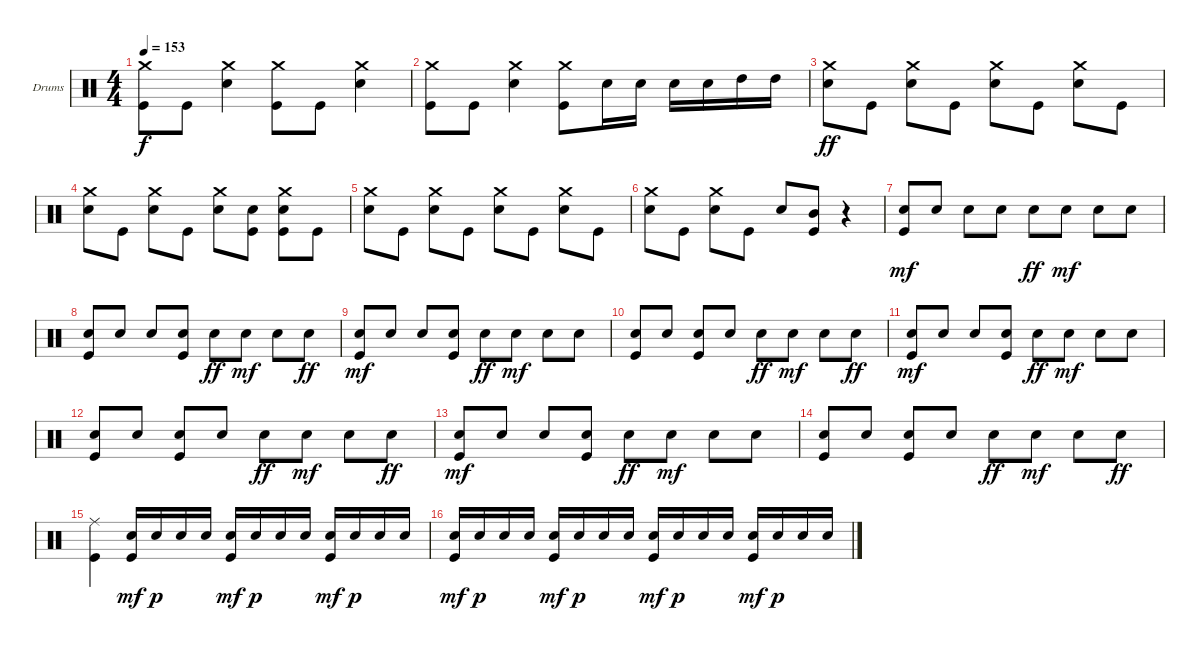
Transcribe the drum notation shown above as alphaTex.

\bracketExtendMode groupsimilarinstruments
\firstSystemTrackNameOrientation horizontal
\otherSystemsTrackNameOrientation horizontal
\track ("Drumkit" "Drums") {instrument percussion}
\staff {score}
\articulation defaults
\ts (4 4)
\tempo 153
\clef neutral
\ks c
("Crash medium (hit)" "Kick (hit)").8{dy f} "Kick (hit)".8 ("Crash medium (hit)" "Snare (hit) 2").4 ("Crash medium (hit)" "Kick (hit)").8 "Kick (hit)".8 ("Crash medium (hit)" "Snare (hit) 2").4 |
("Crash medium (hit)" "Kick (hit)").8 "Kick (hit)".8 ("Crash medium (hit)" "Snare (hit) 2").4 ("Crash medium (hit)" "Kick (hit)").8 "Snare (hit) 2".16 "Snare (hit) 2".16 "Snare (hit) 2".16 "Snare (hit) 2".16 "High Tom (hit)".16 "High Tom (hit)".16 |
("Crash medium (hit)" "Snare (hit) 2").8{dy ff} "Kick (hit)".8 ("Crash medium (hit)" "Snare (hit) 2").8 "Kick (hit)".8 ("Crash medium (hit)" "Snare (hit) 2").8 "Kick (hit)".8 ("Crash medium (hit)" "Snare (hit) 2").8 "Kick (hit)".8 |
("Crash medium (hit)" "Snare (hit) 2").8 "Kick (hit)".8 ("Crash medium (hit)" "Snare (hit) 2").8 "Kick (hit)".8 ("Crash medium (hit)" "Snare (hit) 2").8 ("Kick (hit)" "Snare (hit) 2").8 ("Crash medium (hit)" "Kick (hit)" "Snare (hit) 2").8 "Kick (hit)".8 |
("Crash medium (hit)" "Snare (hit) 2").8 "Kick (hit)".8 ("Crash medium (hit)" "Snare (hit) 2").8 "Kick (hit)".8 ("Crash medium (hit)" "Snare (hit) 2").8 "Kick (hit)".8 ("Crash medium (hit)" "Snare (hit) 2").8 "Kick (hit)".8 |
("Crash medium (hit)" "Snare (hit) 2").8 "Kick (hit)".8 ("Crash medium (hit)" "Snare (hit) 2").8 "Kick (hit)".8 "Snare (hit) 2".8 ("Mid Tom (hit)" "Kick (hit)").8 r.4 |
\section ("" "")
("Snare (hit) 2" "Kick (hit)").8{dy mf} "Snare (hit) 2".8 "Snare (hit) 2".8 "Snare (hit) 2".8 "Snare (hit) 2".8{dy ff} "Snare (hit) 2".8{dy mf} "Snare (hit) 2".8 "Snare (hit) 2".8 |
("Snare (hit) 2" "Kick (hit)").8 "Snare (hit) 2".8 "Snare (hit) 2".8 ("Snare (hit) 2" "Kick (hit)").8 "Snare (hit) 2".8{dy ff} "Snare (hit) 2".8{dy mf} "Snare (hit) 2".8 "Snare (hit) 2".8{dy ff} |
("Snare (hit) 2" "Kick (hit)").8{dy mf} "Snare (hit) 2".8 "Snare (hit) 2".8 ("Snare (hit) 2" "Kick (hit)").8 "Snare (hit) 2".8{dy ff} "Snare (hit) 2".8{dy mf} "Snare (hit) 2".8 "Snare (hit) 2".8 |
("Snare (hit) 2" "Kick (hit)").8 "Snare (hit) 2".8 ("Snare (hit) 2" "Kick (hit)").8 "Snare (hit) 2".8 "Snare (hit) 2".8{dy ff} "Snare (hit) 2".8{dy mf} "Snare (hit) 2".8 "Snare (hit) 2".8{dy ff} |
("Snare (hit) 2" "Kick (hit)").8{dy mf} "Snare (hit) 2".8 "Snare (hit) 2".8 ("Snare (hit) 2" "Kick (hit)").8 "Snare (hit) 2".8{dy ff} "Snare (hit) 2".8{dy mf} "Snare (hit) 2".8 "Snare (hit) 2".8 |
("Snare (hit) 2" "Kick (hit)").8 "Snare (hit) 2".8 ("Snare (hit) 2" "Kick (hit)").8 "Snare (hit) 2".8 "Snare (hit) 2".8{dy ff} "Snare (hit) 2".8{dy mf} "Snare (hit) 2".8 "Snare (hit) 2".8{dy ff} |
("Snare (hit) 2" "Kick (hit)").8{dy mf} "Snare (hit) 2".8 "Snare (hit) 2".8 ("Snare (hit) 2" "Kick (hit)").8 "Snare (hit) 2".8{dy ff} "Snare (hit) 2".8{dy mf} "Snare (hit) 2".8 "Snare (hit) 2".8 |
("Snare (hit) 2" "Kick (hit)").8 "Snare (hit) 2".8 ("Snare (hit) 2" "Kick (hit)").8 "Snare (hit) 2".8 "Snare (hit) 2".8{dy ff} "Snare (hit) 2".8{dy mf} "Snare (hit) 2".8 "Snare (hit) 2".8{dy ff} |
("Ride (middle)" "Kick (hit)").4 ("Snare (hit) 2" "Kick (hit)").16{dy mf} "Snare (hit) 2".16{dy p} "Snare (hit) 2".16 "Snare (hit) 2".16 ("Snare (hit) 2" "Kick (hit)").16{dy mf} "Snare (hit) 2".16{dy p} "Snare (hit) 2".16 "Snare (hit) 2".16 ("Snare (hit) 2" "Kick (hit)").16{dy mf} "Snare (hit) 2".16{dy p} "Snare (hit) 2".16 "Snare (hit) 2".16 |
("Snare (hit) 2" "Kick (hit)").16{dy mf} "Snare (hit) 2".16{dy p} "Snare (hit) 2".16 "Snare (hit) 2".16 ("Snare (hit) 2" "Kick (hit)").16{dy mf} "Snare (hit) 2".16{dy p} "Snare (hit) 2".16 "Snare (hit) 2".16 ("Snare (hit) 2" "Kick (hit)").16{dy mf} "Snare (hit) 2".16{dy p} "Snare (hit) 2".16 "Snare (hit) 2".16 ("Snare (hit) 2" "Kick (hit)").16{dy mf} "Snare (hit) 2".16{dy p} "Snare (hit) 2".16 "Snare (hit) 2".16
